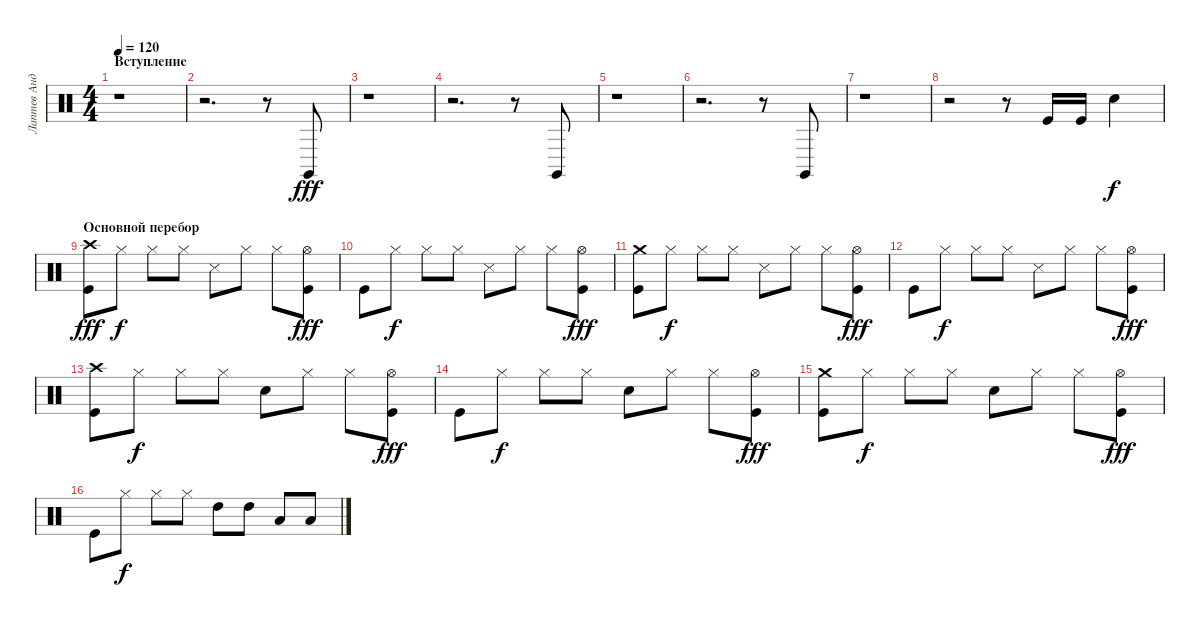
\track ("Лаптев Андрей" "Лаптев Анд") {instrument percussion}
\staff {score}
\articulation defaults
\ts (4 4)
\section ("" "Вступление")
\tempo 120
\clef neutral
\ks c
r.1{dy fff} |
r.2{d} r.8 "Claves (hit)".8 |
r.1 |
r.2{d} r.8 "Claves (hit)".8 |
r.1 |
r.2{d} r.8 "Claves (hit)".8 |
r.1 |
r.2 r.8 "Kick (hit)".16 "Kick (hit)".16 "Snare (hit) 2".4{dy f} |
\section ("" "Основной перебор")
("Kick (hit)" "Crash high (hit)").8{dy fff} "Hi-Hat (closed)".8{dy f} "Hi-Hat (closed)".8 "Hi-Hat (closed)".8 "Snare (side stick) 3".8 "Hi-Hat (closed)".8 "Hi-Hat (closed)".8 ("Hi-Hat (open)" "Kick (hit)").8{dy fff} |
"Kick (hit)".8 "Hi-Hat (closed)".8{dy f} "Hi-Hat (closed)".8 "Hi-Hat (closed)".8 "Snare (side stick) 3".8 "Hi-Hat (closed)".8 "Hi-Hat (closed)".8 ("Kick (hit)" "Hi-Hat (open)").8{dy fff} |
("Kick (hit)" "Crash medium (hit)").8 "Hi-Hat (closed)".8{dy f} "Hi-Hat (closed)".8 "Hi-Hat (closed)".8 "Snare (side stick) 3".8 "Hi-Hat (closed)".8 "Hi-Hat (closed)".8 ("Kick (hit)" "Hi-Hat (open)").8{dy fff} |
"Kick (hit)".8 "Hi-Hat (closed)".8{dy f} "Hi-Hat (closed)".8 "Hi-Hat (closed)".8 "Snare (side stick) 3".8 "Hi-Hat (closed)".8 "Hi-Hat (closed)".8 ("Kick (hit)" "Hi-Hat (open)").8{dy fff} |
("Kick (hit)" "Crash high (hit)").8 "Hi-Hat (closed)".8{dy f} "Hi-Hat (closed)".8 "Hi-Hat (closed)".8 "Snare (hit) 2".8 "Hi-Hat (closed)".8 "Hi-Hat (closed)".8 ("Hi-Hat (open)" "Kick (hit)").8{dy fff} |
"Kick (hit)".8 "Hi-Hat (closed)".8{dy f} "Hi-Hat (closed)".8 "Hi-Hat (closed)".8 "Snare (hit) 2".8 "Hi-Hat (closed)".8 "Hi-Hat (closed)".8 ("Kick (hit)" "Hi-Hat (open)").8{dy fff} |
("Kick (hit)" "Crash medium (hit)").8 "Hi-Hat (closed)".8{dy f} "Hi-Hat (closed)".8 "Hi-Hat (closed)".8 "Snare (hit) 2".8 "Hi-Hat (closed)".8 "Hi-Hat (closed)".8 ("Kick (hit)" "Hi-Hat (open)").8{dy fff} |
"Kick (hit)".8 "Hi-Hat (closed)".8{dy f} "Hi-Hat (closed)".8 "Hi-Hat (closed)".8 "High Tom (hit)".8 "High Tom (hit)".8 "Low Tom (hit)".8 "Low Tom (hit)".8
